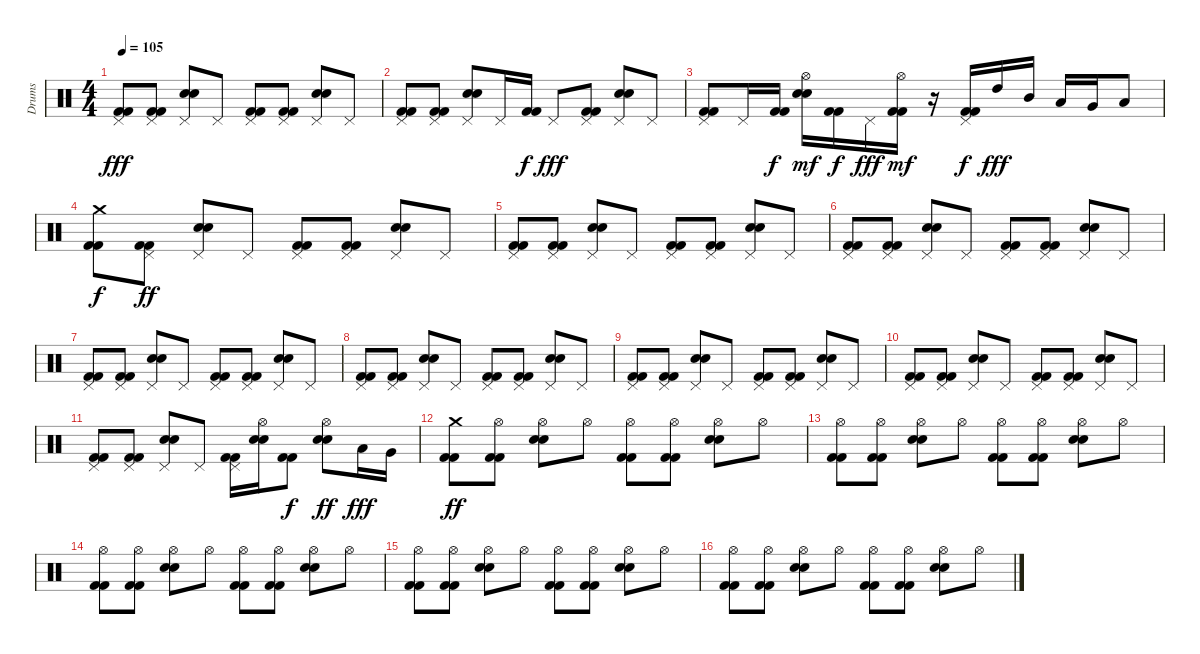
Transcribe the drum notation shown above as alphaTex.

\track ("Drums" "Drums") {instrument percussion}
\staff {score}
\articulation defaults
\ts (4 4)
\tempo 105
\clef neutral
\ks c
("Pedal Hi-Hat (hit)" "Kick (hit) 2" "Kick (hit) 2").8{dy fff} ("Pedal Hi-Hat (hit)" "Kick (hit) 2" "Kick (hit) 2").8 ("Pedal Hi-Hat (hit)" "Electric Snare (hit)" "Snare (hit) 2").8 "Pedal Hi-Hat (hit)".8 ("Pedal Hi-Hat (hit)" "Kick (hit) 2" "Kick (hit) 2").8 ("Pedal Hi-Hat (hit)" "Kick (hit) 2" "Kick (hit) 2").8 ("Pedal Hi-Hat (hit)" "Electric Snare (hit)" "Snare (hit) 2").8 "Pedal Hi-Hat (hit)".8 |
("Pedal Hi-Hat (hit)" "Kick (hit) 2" "Kick (hit) 2").8 ("Pedal Hi-Hat (hit)" "Kick (hit) 2" "Kick (hit) 2").8 ("Pedal Hi-Hat (hit)" "Electric Snare (hit)" "Snare (hit) 2").8 "Pedal Hi-Hat (hit)".16 ("Kick (hit) 2" "Kick (hit) 2").16{dy f} "Pedal Hi-Hat (hit)".8{dy fff} ("Pedal Hi-Hat (hit)" "Kick (hit) 2" "Kick (hit) 2").8 ("Pedal Hi-Hat (hit)" "Electric Snare (hit)" "Snare (hit) 2").8 "Pedal Hi-Hat (hit)".8 |
("Pedal Hi-Hat (hit)" "Kick (hit) 2" "Kick (hit) 2").8 "Pedal Hi-Hat (hit)".16 ("Kick (hit) 2" "Kick (hit) 2").16{dy f} ("Hi-Hat (open)" "Electric Snare (hit)" "Snare (hit) 2").16{dy mf} ("Kick (hit) 2" "Kick (hit) 2").16{dy f} "Pedal Hi-Hat (hit)".16{dy fff} ("Hi-Hat (open)" "Kick (hit) 2" "Kick (hit) 2").16{dy mf} r.16 ("Pedal Hi-Hat (hit)" "Kick (hit) 2" "Kick (hit) 2").16{dy f} "High Tom (hit)".16{dy fff} "Mid Tom (hit)".16 "Low Tom (hit)".16 "Very Low Tom (hit)".16 "Low Floor Tom (hit)".8 |
("Crash medium (hit)" "Kick (hit) 2" "Kick (hit) 2").8{dy f} ("Pedal Hi-Hat (hit)" "Kick (hit) 2" "Kick (hit) 2").8{dy ff} ("Pedal Hi-Hat (hit)" "Electric Snare (hit)" "Snare (hit) 2").8 "Pedal Hi-Hat (hit)".8 ("Pedal Hi-Hat (hit)" "Kick (hit) 2" "Kick (hit) 2").8 ("Pedal Hi-Hat (hit)" "Kick (hit) 2" "Kick (hit) 2").8 ("Pedal Hi-Hat (hit)" "Electric Snare (hit)" "Snare (hit) 2").8 "Pedal Hi-Hat (hit)".8 |
("Pedal Hi-Hat (hit)" "Kick (hit) 2" "Kick (hit) 2").8 ("Pedal Hi-Hat (hit)" "Kick (hit) 2" "Kick (hit) 2").8 ("Pedal Hi-Hat (hit)" "Electric Snare (hit)" "Snare (hit) 2").8 "Pedal Hi-Hat (hit)".8 ("Pedal Hi-Hat (hit)" "Kick (hit) 2" "Kick (hit) 2").8 ("Pedal Hi-Hat (hit)" "Kick (hit) 2" "Kick (hit) 2").8 ("Pedal Hi-Hat (hit)" "Electric Snare (hit)" "Snare (hit) 2").8 "Pedal Hi-Hat (hit)".8 |
("Pedal Hi-Hat (hit)" "Kick (hit) 2" "Kick (hit) 2").8 ("Pedal Hi-Hat (hit)" "Kick (hit) 2" "Kick (hit) 2").8 ("Pedal Hi-Hat (hit)" "Electric Snare (hit)" "Snare (hit) 2").8 "Pedal Hi-Hat (hit)".8 ("Pedal Hi-Hat (hit)" "Kick (hit) 2" "Kick (hit) 2").8 ("Pedal Hi-Hat (hit)" "Kick (hit) 2" "Kick (hit) 2").8 ("Pedal Hi-Hat (hit)" "Electric Snare (hit)" "Snare (hit) 2").8 "Pedal Hi-Hat (hit)".8 |
("Pedal Hi-Hat (hit)" "Kick (hit) 2" "Kick (hit) 2").8 ("Pedal Hi-Hat (hit)" "Kick (hit) 2" "Kick (hit) 2").8 ("Pedal Hi-Hat (hit)" "Electric Snare (hit)" "Snare (hit) 2").8 "Pedal Hi-Hat (hit)".8 ("Pedal Hi-Hat (hit)" "Kick (hit) 2" "Kick (hit) 2").8 ("Pedal Hi-Hat (hit)" "Kick (hit) 2" "Kick (hit) 2").8 ("Pedal Hi-Hat (hit)" "Electric Snare (hit)" "Snare (hit) 2").8 "Pedal Hi-Hat (hit)".8 |
("Pedal Hi-Hat (hit)" "Kick (hit) 2" "Kick (hit) 2").8 ("Pedal Hi-Hat (hit)" "Kick (hit) 2" "Kick (hit) 2").8 ("Pedal Hi-Hat (hit)" "Electric Snare (hit)" "Snare (hit) 2").8 "Pedal Hi-Hat (hit)".8 ("Pedal Hi-Hat (hit)" "Kick (hit) 2" "Kick (hit) 2").8 ("Pedal Hi-Hat (hit)" "Kick (hit) 2" "Kick (hit) 2").8 ("Pedal Hi-Hat (hit)" "Electric Snare (hit)" "Snare (hit) 2").8 "Pedal Hi-Hat (hit)".8 |
("Pedal Hi-Hat (hit)" "Kick (hit) 2" "Kick (hit) 2").8 ("Pedal Hi-Hat (hit)" "Kick (hit) 2" "Kick (hit) 2").8 ("Pedal Hi-Hat (hit)" "Electric Snare (hit)" "Snare (hit) 2").8 "Pedal Hi-Hat (hit)".8 ("Pedal Hi-Hat (hit)" "Kick (hit) 2" "Kick (hit) 2").8 ("Pedal Hi-Hat (hit)" "Kick (hit) 2" "Kick (hit) 2").8 ("Pedal Hi-Hat (hit)" "Electric Snare (hit)" "Snare (hit) 2").8 "Pedal Hi-Hat (hit)".8 |
("Pedal Hi-Hat (hit)" "Kick (hit) 2" "Kick (hit) 2").8 ("Pedal Hi-Hat (hit)" "Kick (hit) 2" "Kick (hit) 2").8 ("Pedal Hi-Hat (hit)" "Electric Snare (hit)" "Snare (hit) 2").8 "Pedal Hi-Hat (hit)".8 ("Pedal Hi-Hat (hit)" "Kick (hit) 2" "Kick (hit) 2").8 ("Pedal Hi-Hat (hit)" "Kick (hit) 2" "Kick (hit) 2").8 ("Pedal Hi-Hat (hit)" "Electric Snare (hit)" "Snare (hit) 2").8 "Pedal Hi-Hat (hit)".8 |
("Pedal Hi-Hat (hit)" "Kick (hit) 2" "Kick (hit) 2").8 ("Pedal Hi-Hat (hit)" "Kick (hit) 2" "Kick (hit) 2").8 ("Pedal Hi-Hat (hit)" "Electric Snare (hit)" "Snare (hit) 2").8 "Pedal Hi-Hat (hit)".8 ("Pedal Hi-Hat (hit)" "Kick (hit) 2" "Kick (hit) 2").16 ("Hi-Hat (open)" "Electric Snare (hit)" "Snare (hit) 2").16 ("Kick (hit) 2" "Kick (hit) 2").8{dy f} ("Hi-Hat (open)" "Electric Snare (hit)" "Snare (hit) 2").8{dy ff} "Low Tom (hit)".16{dy fff} "Very Low Tom (hit)".16 |
("Crash medium (hit)" "Kick (hit) 2" "Kick (hit) 2").8{dy ff} ("Hi-Hat (open)" "Kick (hit) 2" "Kick (hit) 2").8 ("Hi-Hat (open)" "Electric Snare (hit)" "Snare (hit) 2").8 "Hi-Hat (open)".8 ("Hi-Hat (open)" "Kick (hit) 2" "Kick (hit) 2").8 ("Hi-Hat (open)" "Kick (hit) 2" "Kick (hit) 2").8 ("Hi-Hat (open)" "Electric Snare (hit)" "Snare (hit) 2").8 "Hi-Hat (open)".8 |
("Hi-Hat (open)" "Kick (hit) 2" "Kick (hit) 2").8 ("Hi-Hat (open)" "Kick (hit) 2" "Kick (hit) 2").8 ("Hi-Hat (open)" "Electric Snare (hit)" "Snare (hit) 2").8 "Hi-Hat (open)".8 ("Hi-Hat (open)" "Kick (hit) 2" "Kick (hit) 2").8 ("Hi-Hat (open)" "Kick (hit) 2" "Kick (hit) 2").8 ("Hi-Hat (open)" "Electric Snare (hit)" "Snare (hit) 2").8 "Hi-Hat (open)".8 |
("Hi-Hat (open)" "Kick (hit) 2" "Kick (hit) 2").8 ("Hi-Hat (open)" "Kick (hit) 2" "Kick (hit) 2").8 ("Hi-Hat (open)" "Electric Snare (hit)" "Snare (hit) 2").8 "Hi-Hat (open)".8 ("Hi-Hat (open)" "Kick (hit) 2" "Kick (hit) 2").8 ("Hi-Hat (open)" "Kick (hit) 2" "Kick (hit) 2").8 ("Hi-Hat (open)" "Electric Snare (hit)" "Snare (hit) 2").8 "Hi-Hat (open)".8 |
("Hi-Hat (open)" "Kick (hit) 2" "Kick (hit) 2").8 ("Hi-Hat (open)" "Kick (hit) 2" "Kick (hit) 2").8 ("Hi-Hat (open)" "Electric Snare (hit)" "Snare (hit) 2").8 "Hi-Hat (open)".8 ("Hi-Hat (open)" "Kick (hit) 2" "Kick (hit) 2").8 ("Hi-Hat (open)" "Kick (hit) 2" "Kick (hit) 2").8 ("Hi-Hat (open)" "Electric Snare (hit)" "Snare (hit) 2").8 "Hi-Hat (open)".8 |
("Hi-Hat (open)" "Kick (hit) 2" "Kick (hit) 2").8 ("Hi-Hat (open)" "Kick (hit) 2" "Kick (hit) 2").8 ("Hi-Hat (open)" "Electric Snare (hit)" "Snare (hit) 2").8 "Hi-Hat (open)".8 ("Hi-Hat (open)" "Kick (hit) 2" "Kick (hit) 2").8 ("Hi-Hat (open)" "Kick (hit) 2" "Kick (hit) 2").8 ("Hi-Hat (open)" "Electric Snare (hit)" "Snare (hit) 2").8 "Hi-Hat (open)".8
